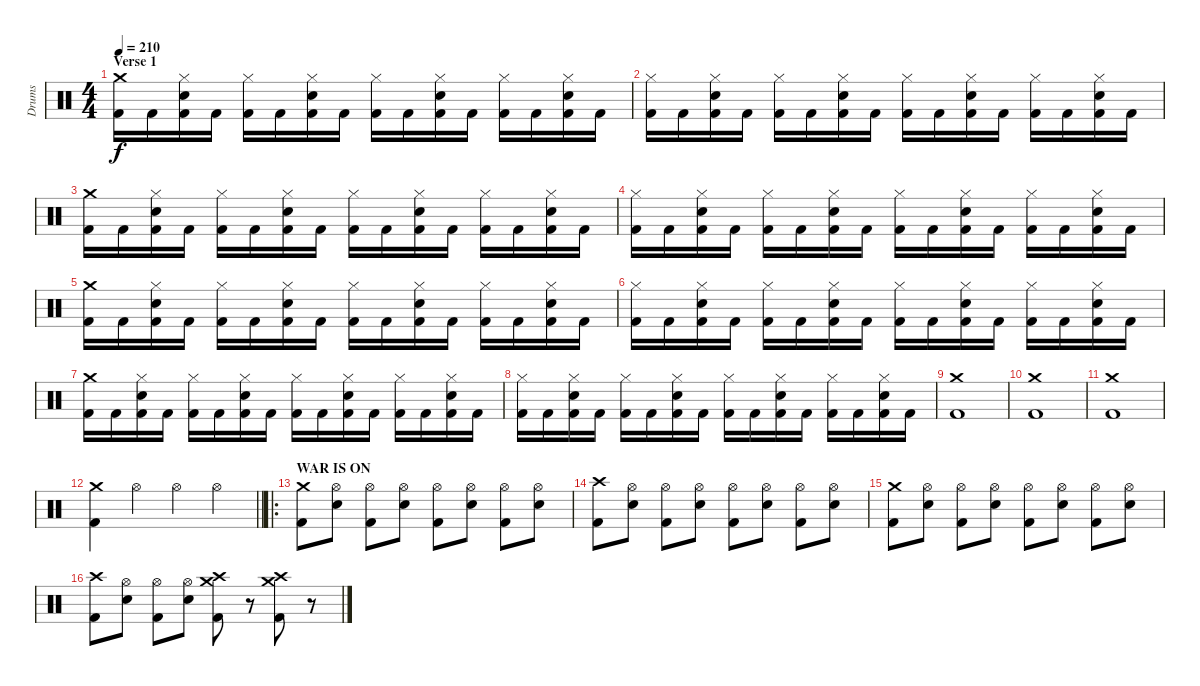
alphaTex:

\track ("Drums" "Drums") {instrument percussion}
\staff {score}
\articulation defaults
\ts (4 4)
\section ("" "Verse 1")
\tempo 210
\clef neutral
\ks c
("Crash medium (hit)" "Kick (hit) 2").16{dy f} "Kick (hit) 2".16 ("Hi-Hat (closed)" "Electric Snare (hit)" "Kick (hit) 2").16 "Kick (hit) 2".16 ("Hi-Hat (closed)" "Kick (hit) 2").16 "Kick (hit) 2".16 ("Hi-Hat (closed)" "Electric Snare (hit)" "Kick (hit) 2").16 "Kick (hit) 2".16 ("Hi-Hat (closed)" "Kick (hit) 2").16 "Kick (hit) 2".16 ("Hi-Hat (closed)" "Electric Snare (hit)" "Kick (hit) 2").16 "Kick (hit) 2".16 ("Hi-Hat (closed)" "Kick (hit) 2").16 "Kick (hit) 2".16 ("Hi-Hat (closed)" "Electric Snare (hit)" "Kick (hit) 2").16 "Kick (hit) 2".16 |
("Hi-Hat (closed)" "Kick (hit) 2").16 "Kick (hit) 2".16 ("Hi-Hat (closed)" "Electric Snare (hit)" "Kick (hit) 2").16 "Kick (hit) 2".16 ("Hi-Hat (closed)" "Kick (hit) 2").16 "Kick (hit) 2".16 ("Hi-Hat (closed)" "Electric Snare (hit)" "Kick (hit) 2").16 "Kick (hit) 2".16 ("Hi-Hat (closed)" "Kick (hit) 2").16 "Kick (hit) 2".16 ("Hi-Hat (closed)" "Electric Snare (hit)" "Kick (hit) 2").16 "Kick (hit) 2".16 ("Hi-Hat (closed)" "Kick (hit) 2").16 "Kick (hit) 2".16 ("Hi-Hat (closed)" "Electric Snare (hit)" "Kick (hit) 2").16 "Kick (hit) 2".16 |
("Crash medium (hit)" "Kick (hit) 2").16 "Kick (hit) 2".16 ("Hi-Hat (closed)" "Electric Snare (hit)" "Kick (hit) 2").16 "Kick (hit) 2".16 ("Hi-Hat (closed)" "Kick (hit) 2").16 "Kick (hit) 2".16 ("Hi-Hat (closed)" "Electric Snare (hit)" "Kick (hit) 2").16 "Kick (hit) 2".16 ("Hi-Hat (closed)" "Kick (hit) 2").16 "Kick (hit) 2".16 ("Hi-Hat (closed)" "Electric Snare (hit)" "Kick (hit) 2").16 "Kick (hit) 2".16 ("Hi-Hat (closed)" "Kick (hit) 2").16 "Kick (hit) 2".16 ("Hi-Hat (closed)" "Electric Snare (hit)" "Kick (hit) 2").16 "Kick (hit) 2".16 |
("Hi-Hat (closed)" "Kick (hit) 2").16 "Kick (hit) 2".16 ("Hi-Hat (closed)" "Electric Snare (hit)" "Kick (hit) 2").16 "Kick (hit) 2".16 ("Hi-Hat (closed)" "Kick (hit) 2").16 "Kick (hit) 2".16 ("Hi-Hat (closed)" "Electric Snare (hit)" "Kick (hit) 2").16 "Kick (hit) 2".16 ("Hi-Hat (closed)" "Kick (hit) 2").16 "Kick (hit) 2".16 ("Hi-Hat (closed)" "Electric Snare (hit)" "Kick (hit) 2").16 "Kick (hit) 2".16 ("Hi-Hat (closed)" "Kick (hit) 2").16 "Kick (hit) 2".16 ("Hi-Hat (closed)" "Electric Snare (hit)" "Kick (hit) 2").16 "Kick (hit) 2".16 |
("Crash medium (hit)" "Kick (hit) 2").16 "Kick (hit) 2".16 ("Hi-Hat (closed)" "Electric Snare (hit)" "Kick (hit) 2").16 "Kick (hit) 2".16 ("Hi-Hat (closed)" "Kick (hit) 2").16 "Kick (hit) 2".16 ("Hi-Hat (closed)" "Electric Snare (hit)" "Kick (hit) 2").16 "Kick (hit) 2".16 ("Hi-Hat (closed)" "Kick (hit) 2").16 "Kick (hit) 2".16 ("Hi-Hat (closed)" "Electric Snare (hit)" "Kick (hit) 2").16 "Kick (hit) 2".16 ("Hi-Hat (closed)" "Kick (hit) 2").16 "Kick (hit) 2".16 ("Hi-Hat (closed)" "Electric Snare (hit)" "Kick (hit) 2").16 "Kick (hit) 2".16 |
("Hi-Hat (closed)" "Kick (hit) 2").16 "Kick (hit) 2".16 ("Hi-Hat (closed)" "Electric Snare (hit)" "Kick (hit) 2").16 "Kick (hit) 2".16 ("Hi-Hat (closed)" "Kick (hit) 2").16 "Kick (hit) 2".16 ("Hi-Hat (closed)" "Electric Snare (hit)" "Kick (hit) 2").16 "Kick (hit) 2".16 ("Hi-Hat (closed)" "Kick (hit) 2").16 "Kick (hit) 2".16 ("Hi-Hat (closed)" "Electric Snare (hit)" "Kick (hit) 2").16 "Kick (hit) 2".16 ("Hi-Hat (closed)" "Kick (hit) 2").16 "Kick (hit) 2".16 ("Hi-Hat (closed)" "Electric Snare (hit)" "Kick (hit) 2").16 "Kick (hit) 2".16 |
("Crash medium (hit)" "Kick (hit) 2").16 "Kick (hit) 2".16 ("Hi-Hat (closed)" "Electric Snare (hit)" "Kick (hit) 2").16 "Kick (hit) 2".16 ("Hi-Hat (closed)" "Kick (hit) 2").16 "Kick (hit) 2".16 ("Hi-Hat (closed)" "Electric Snare (hit)" "Kick (hit) 2").16 "Kick (hit) 2".16 ("Hi-Hat (closed)" "Kick (hit) 2").16 "Kick (hit) 2".16 ("Hi-Hat (closed)" "Electric Snare (hit)" "Kick (hit) 2").16 "Kick (hit) 2".16 ("Hi-Hat (closed)" "Kick (hit) 2").16 "Kick (hit) 2".16 ("Hi-Hat (closed)" "Electric Snare (hit)" "Kick (hit) 2").16 "Kick (hit) 2".16 |
("Hi-Hat (closed)" "Kick (hit) 2").16 "Kick (hit) 2".16 ("Hi-Hat (closed)" "Electric Snare (hit)" "Kick (hit) 2").16 "Kick (hit) 2".16 ("Hi-Hat (closed)" "Kick (hit) 2").16 "Kick (hit) 2".16 ("Hi-Hat (closed)" "Electric Snare (hit)" "Kick (hit) 2").16 "Kick (hit) 2".16 ("Hi-Hat (closed)" "Kick (hit) 2").16 "Kick (hit) 2".16 ("Hi-Hat (closed)" "Electric Snare (hit)" "Kick (hit) 2").16 "Kick (hit) 2".16 ("Hi-Hat (closed)" "Kick (hit) 2").16 "Kick (hit) 2".16 ("Hi-Hat (closed)" "Electric Snare (hit)" "Kick (hit) 2").16 "Kick (hit) 2".16 |
("Crash medium (hit)" "Kick (hit) 2").1 |
("Crash medium (hit)" "Kick (hit) 2").1 |
("Crash medium (hit)" "Kick (hit) 2").1 |
\barLineRight lightlight
("Crash medium (hit)" "Kick (hit) 2").4 "Hi-Hat (open)".4 "Hi-Hat (open)".4 "Hi-Hat (open)".4 |
\ro
\section ("" "WAR IS ON")
("Crash medium (hit)" "Kick (hit) 2").8 ("Hi-Hat (open)" "Electric Snare (hit)").8 ("Hi-Hat (open)" "Kick (hit) 2").8 ("Hi-Hat (open)" "Electric Snare (hit)").8 ("Hi-Hat (open)" "Kick (hit) 2").8 ("Hi-Hat (open)" "Electric Snare (hit)").8 ("Hi-Hat (open)" "Kick (hit) 2").8 ("Hi-Hat (open)" "Electric Snare (hit)").8 |
("Crash high (hit)" "Kick (hit) 2").8 ("Hi-Hat (open)" "Electric Snare (hit)").8 ("Hi-Hat (open)" "Kick (hit) 2").8 ("Hi-Hat (open)" "Electric Snare (hit)").8 ("Hi-Hat (open)" "Kick (hit) 2").8 ("Hi-Hat (open)" "Electric Snare (hit)").8 ("Hi-Hat (open)" "Kick (hit) 2").8 ("Hi-Hat (open)" "Electric Snare (hit)").8 |
("Crash medium (hit)" "Kick (hit) 2").8 ("Hi-Hat (open)" "Electric Snare (hit)").8 ("Hi-Hat (open)" "Kick (hit) 2").8 ("Hi-Hat (open)" "Electric Snare (hit)").8 ("Hi-Hat (open)" "Kick (hit) 2").8 ("Hi-Hat (open)" "Electric Snare (hit)").8 ("Hi-Hat (open)" "Kick (hit) 2").8 ("Hi-Hat (open)" "Electric Snare (hit)").8 |
("Crash high (hit)" "Kick (hit) 2").8 ("Hi-Hat (open)" "Electric Snare (hit)").8 ("Hi-Hat (open)" "Kick (hit) 2").8 ("Hi-Hat (open)" "Electric Snare (hit)").8 ("Crash medium (hit)" "Crash high (hit)" "Kick (hit) 2").8 r.8 ("Crash medium (hit)" "Crash high (hit)" "Kick (hit) 2").8 r.8
